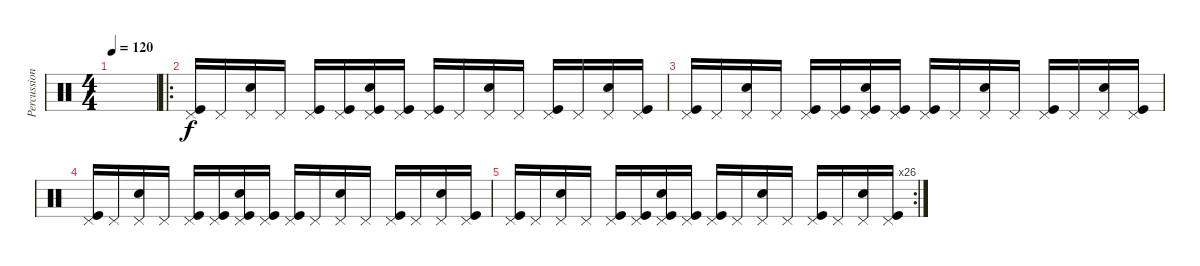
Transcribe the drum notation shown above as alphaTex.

\track ("Percussion" "Percussion") {instrument percussion}
\staff {score}
\articulation defaults
\ts (4 4)
\tempo 120
\clef neutral
\ks c
|
\ro
("Pedal Hi-Hat (hit)" "Kick (hit)").16 "Pedal Hi-Hat (hit)".16 ("Pedal Hi-Hat (hit)" "Snare (hit) 2").16 "Pedal Hi-Hat (hit)".16 ("Pedal Hi-Hat (hit)" "Kick (hit)").16 ("Pedal Hi-Hat (hit)" "Kick (hit)").16 ("Pedal Hi-Hat (hit)" "Snare (hit) 2" "Kick (hit)").16 ("Pedal Hi-Hat (hit)" "Kick (hit)").16 ("Pedal Hi-Hat (hit)" "Kick (hit)").16 "Pedal Hi-Hat (hit)".16 ("Pedal Hi-Hat (hit)" "Snare (hit) 2").16 "Pedal Hi-Hat (hit)".16 ("Pedal Hi-Hat (hit)" "Kick (hit)").16 "Pedal Hi-Hat (hit)".16 ("Pedal Hi-Hat (hit)" "Snare (hit) 2").16 ("Pedal Hi-Hat (hit)" "Kick (hit)").16 |
("Pedal Hi-Hat (hit)" "Kick (hit)").16 "Pedal Hi-Hat (hit)".16 ("Pedal Hi-Hat (hit)" "Snare (hit) 2").16 "Pedal Hi-Hat (hit)".16 ("Pedal Hi-Hat (hit)" "Kick (hit)").16 ("Pedal Hi-Hat (hit)" "Kick (hit)").16 ("Pedal Hi-Hat (hit)" "Snare (hit) 2" "Kick (hit)").16 ("Pedal Hi-Hat (hit)" "Kick (hit)").16 ("Pedal Hi-Hat (hit)" "Kick (hit)").16 "Pedal Hi-Hat (hit)".16 ("Pedal Hi-Hat (hit)" "Snare (hit) 2").16 "Pedal Hi-Hat (hit)".16 ("Pedal Hi-Hat (hit)" "Kick (hit)").16 "Pedal Hi-Hat (hit)".16 ("Pedal Hi-Hat (hit)" "Snare (hit) 2").16 ("Pedal Hi-Hat (hit)" "Kick (hit)").16 |
("Pedal Hi-Hat (hit)" "Kick (hit)").16 "Pedal Hi-Hat (hit)".16 ("Pedal Hi-Hat (hit)" "Snare (hit) 2").16 "Pedal Hi-Hat (hit)".16 ("Pedal Hi-Hat (hit)" "Kick (hit)").16 ("Pedal Hi-Hat (hit)" "Kick (hit)").16 ("Pedal Hi-Hat (hit)" "Snare (hit) 2" "Kick (hit)").16 ("Pedal Hi-Hat (hit)" "Kick (hit)").16 ("Pedal Hi-Hat (hit)" "Kick (hit)").16 "Pedal Hi-Hat (hit)".16 ("Pedal Hi-Hat (hit)" "Snare (hit) 2").16 "Pedal Hi-Hat (hit)".16 ("Pedal Hi-Hat (hit)" "Kick (hit)").16 "Pedal Hi-Hat (hit)".16 ("Pedal Hi-Hat (hit)" "Snare (hit) 2").16 ("Pedal Hi-Hat (hit)" "Kick (hit)").16 |
\rc 26
("Pedal Hi-Hat (hit)" "Kick (hit)").16 "Pedal Hi-Hat (hit)".16 ("Pedal Hi-Hat (hit)" "Snare (hit) 2").16 "Pedal Hi-Hat (hit)".16 ("Pedal Hi-Hat (hit)" "Kick (hit)").16 ("Pedal Hi-Hat (hit)" "Kick (hit)").16 ("Pedal Hi-Hat (hit)" "Snare (hit) 2" "Kick (hit)").16 ("Pedal Hi-Hat (hit)" "Kick (hit)").16 ("Pedal Hi-Hat (hit)" "Kick (hit)").16 "Pedal Hi-Hat (hit)".16 ("Pedal Hi-Hat (hit)" "Snare (hit) 2").16 "Pedal Hi-Hat (hit)".16 ("Pedal Hi-Hat (hit)" "Kick (hit)").16 "Pedal Hi-Hat (hit)".16 ("Pedal Hi-Hat (hit)" "Snare (hit) 2").16 ("Pedal Hi-Hat (hit)" "Kick (hit)").16
